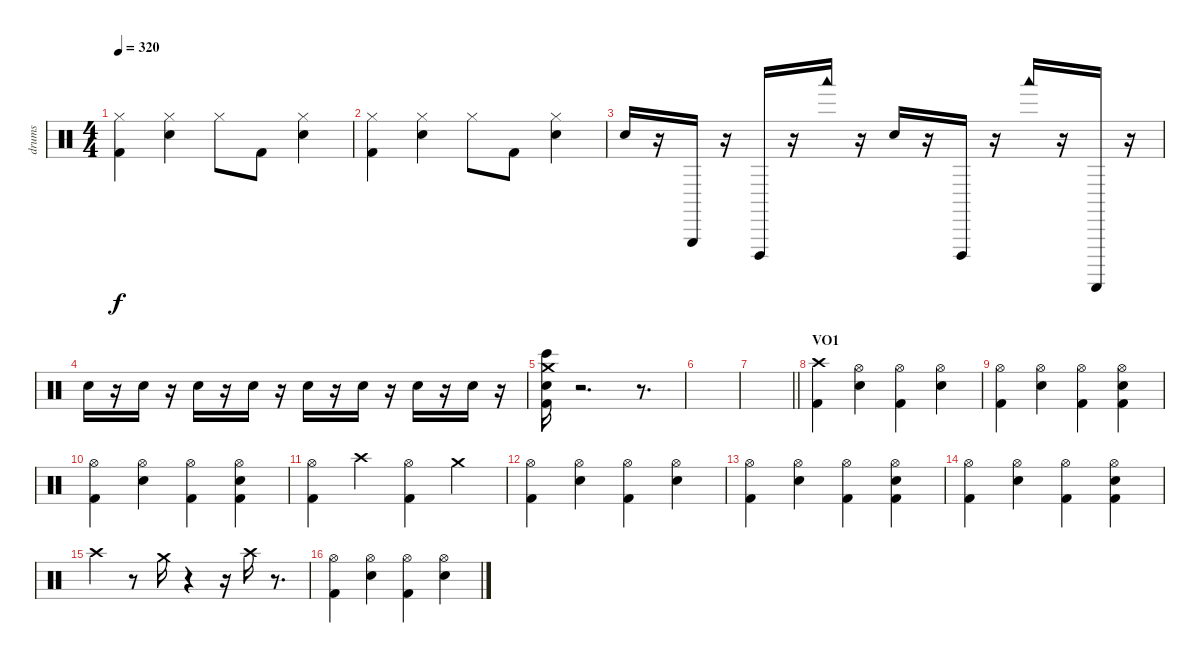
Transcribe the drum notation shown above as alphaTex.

\track ("drums" "drums") {instrument percussion}
\staff {score}
\articulation defaults
\ts (4 4)
\tempo 320
\clef neutral
\ks c
("Hi-Hat (closed)" "Kick (hit) 2").4{dy f} ("Hi-Hat (closed)" "Snare (hit) 2").4 "Hi-Hat (closed)".8 "Kick (hit) 2".8 ("Hi-Hat (closed)" "Snare (hit) 2").4 |
("Hi-Hat (closed)" "Kick (hit) 2").4 ("Hi-Hat (closed)" "Snare (hit) 2").4 "Hi-Hat (closed)".8 "Kick (hit) 2".8 ("Hi-Hat (closed)" "Snare (hit) 2").4 |
"Snare (hit) 2".16 r.16 "Triangle (hit)".16 r.16 "Cuica (open)".16 r.16 "Woodblock low (hit)".16 r.16 "Snare (hit) 2".16 r.16 "Cuica (open)".16 r.16 "Woodblock low (hit)".16 r.16 "Guiro (scrap-return)".16 r.16 |
"Snare (hit) 2".16 r.16 "Snare (hit) 2".16 r.16 "Snare (hit) 2".16 r.16 "Snare (hit) 2".16 r.16 "Snare (hit) 2".16 r.16 "Snare (hit) 2".16 r.16 "Snare (hit) 2".16 r.16 "Snare (hit) 2".16 r.16 |
("Snare (hit)" "Bongo High (hit)" "Kick (hit) 2" "Crash medium (hit)").16 r.2{d} r.8{d} |
|
\barLineRight lightlight
|
\section ("" "VO1")
("Crash high (hit)" "Kick (hit) 2").4 ("Hi-Hat (open)" "Snare (hit) 2").4 ("Hi-Hat (open)" "Kick (hit) 2").4 ("Hi-Hat (open)" "Snare (hit) 2").4 |
("Hi-Hat (open)" "Kick (hit) 2").4 ("Hi-Hat (open)" "Snare (hit) 2").4 ("Hi-Hat (open)" "Kick (hit) 2").4 ("Hi-Hat (open)" "Snare (hit) 2" "Kick (hit) 2").4 |
("Hi-Hat (open)" "Kick (hit) 2").4 ("Hi-Hat (open)" "Snare (hit) 2").4 ("Hi-Hat (open)" "Kick (hit) 2").4 ("Hi-Hat (open)" "Snare (hit) 2" "Kick (hit) 2").4 |
("Hi-Hat (open)" "Kick (hit) 2").4 "Crash high (hit)".4 ("Hi-Hat (open)" "Kick (hit) 2").4 "Crash medium (hit)".4 |
("Hi-Hat (open)" "Kick (hit) 2").4 ("Hi-Hat (open)" "Snare (hit) 2").4 ("Hi-Hat (open)" "Kick (hit) 2").4 ("Hi-Hat (open)" "Snare (hit) 2").4 |
("Hi-Hat (open)" "Kick (hit) 2").4 ("Hi-Hat (open)" "Snare (hit) 2").4 ("Hi-Hat (open)" "Kick (hit) 2").4 ("Hi-Hat (open)" "Snare (hit) 2" "Kick (hit) 2").4 |
("Hi-Hat (open)" "Kick (hit) 2").4 ("Hi-Hat (open)" "Snare (hit) 2").4 ("Hi-Hat (open)" "Kick (hit) 2").4 ("Hi-Hat (open)" "Snare (hit) 2" "Kick (hit) 2").4 |
"Crash high (hit)".4 r.8 "Crash medium (hit)".16 r.4 r.16 "Crash high (hit)".16 r.8{d} |
("Hi-Hat (open)" "Kick (hit) 2").4 ("Hi-Hat (open)" "Snare (hit) 2").4 ("Hi-Hat (open)" "Kick (hit) 2").4 ("Hi-Hat (open)" "Snare (hit) 2").4
